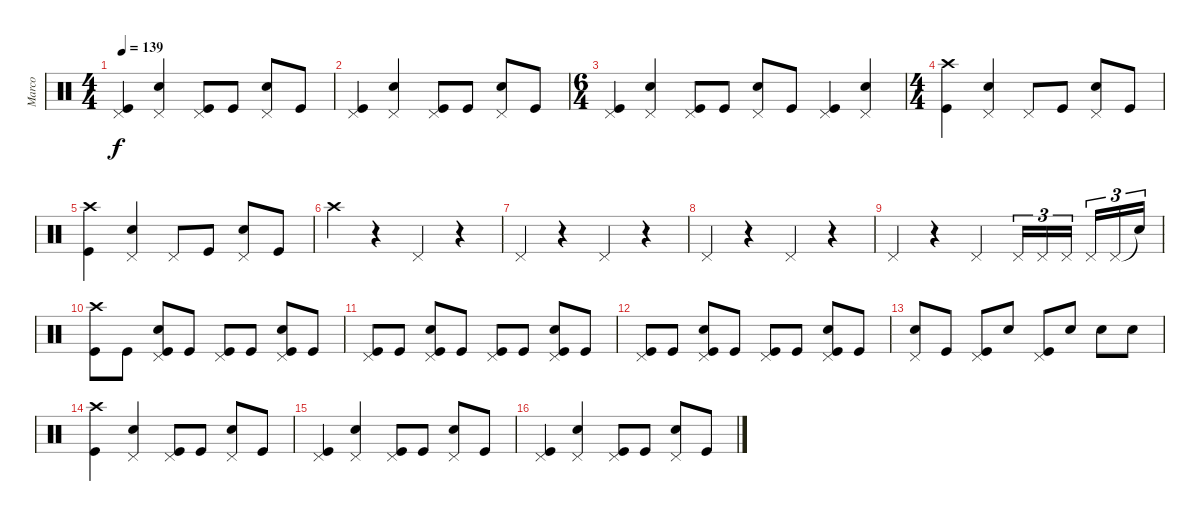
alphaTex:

\track ("Marco" "Marco") {instrument percussion}
\staff {score}
\articulation defaults
\ts (4 4)
\tempo 139
\clef neutral
\ks c
("Pedal Hi-Hat (hit)" "Kick (hit)").4{dy f} ("Pedal Hi-Hat (hit)" "Snare (hit) 2").4 ("Pedal Hi-Hat (hit)" "Kick (hit)").8 "Kick (hit)".8 ("Pedal Hi-Hat (hit)" "Snare (hit) 2").8 "Kick (hit)".8 |
("Pedal Hi-Hat (hit)" "Kick (hit)").4 ("Pedal Hi-Hat (hit)" "Snare (hit) 2").4 ("Pedal Hi-Hat (hit)" "Kick (hit)").8 "Kick (hit)".8 ("Pedal Hi-Hat (hit)" "Snare (hit) 2").8 "Kick (hit)".8 |
\ts (6 4)
("Pedal Hi-Hat (hit)" "Kick (hit)").4 ("Pedal Hi-Hat (hit)" "Snare (hit) 2").4 ("Pedal Hi-Hat (hit)" "Kick (hit)").8 "Kick (hit)".8 ("Pedal Hi-Hat (hit)" "Snare (hit) 2").8 "Kick (hit)".8 ("Pedal Hi-Hat (hit)" "Kick (hit)").4 ("Pedal Hi-Hat (hit)" "Snare (hit) 2").4 |
\ts (4 4)
("Crash high (hit)" "Kick (hit)").4 ("Pedal Hi-Hat (hit)" "Snare (hit) 2").4 "Pedal Hi-Hat (hit)".8 "Kick (hit)".8 ("Pedal Hi-Hat (hit)" "Snare (hit) 2").8 "Kick (hit)".8 |
("Crash high (hit)" "Kick (hit)").4 ("Pedal Hi-Hat (hit)" "Snare (hit) 2").4 "Pedal Hi-Hat (hit)".8 "Kick (hit)".8 ("Pedal Hi-Hat (hit)" "Snare (hit) 2").8 "Kick (hit)".8 |
"Crash high (hit)".4 r.4 "Pedal Hi-Hat (hit)".4 r.4 |
"Pedal Hi-Hat (hit)".4 r.4 "Pedal Hi-Hat (hit)".4 r.4 |
"Pedal Hi-Hat (hit)".4 r.4 "Pedal Hi-Hat (hit)".4 r.4 |
"Pedal Hi-Hat (hit)".4 r.4 "Pedal Hi-Hat (hit)".4 "Pedal Hi-Hat (hit)".16{tu (3 2)} "Pedal Hi-Hat (hit)".16{tu (3 2)} "Pedal Hi-Hat (hit)".16{tu (3 2)} "Pedal Hi-Hat (hit)".16{tu (3 2)} "Pedal Hi-Hat (hit)".16{tu (3 2)} "Snare (hit)"{t}.16{tu (3 2)} |
("Crash high (hit)" "Kick (hit)").8 "Kick (hit)".8 ("Pedal Hi-Hat (hit)" "Snare (hit) 2" "Kick (hit)").8 "Kick (hit)".8 ("Pedal Hi-Hat (hit)" "Kick (hit)").8 "Kick (hit)".8 ("Pedal Hi-Hat (hit)" "Snare (hit) 2" "Kick (hit)").8 "Kick (hit)".8 |
("Pedal Hi-Hat (hit)" "Kick (hit)").8 "Kick (hit)".8 ("Pedal Hi-Hat (hit)" "Snare (hit) 2" "Kick (hit)").8 "Kick (hit)".8 ("Pedal Hi-Hat (hit)" "Kick (hit)").8 "Kick (hit)".8 ("Pedal Hi-Hat (hit)" "Snare (hit) 2" "Kick (hit)").8 "Kick (hit)".8 |
("Pedal Hi-Hat (hit)" "Kick (hit)").8 "Kick (hit)".8 ("Pedal Hi-Hat (hit)" "Snare (hit) 2" "Kick (hit)").8 "Kick (hit)".8 ("Pedal Hi-Hat (hit)" "Kick (hit)").8 "Kick (hit)".8 ("Pedal Hi-Hat (hit)" "Snare (hit) 2" "Kick (hit)").8 "Kick (hit)".8 |
("Pedal Hi-Hat (hit)" "Snare (hit) 2").8 "Kick (hit)".8 ("Pedal Hi-Hat (hit)" "Kick (hit)").8 "Snare (hit) 2".8 ("Pedal Hi-Hat (hit)" "Kick (hit)").8 "Snare (hit) 2".8 "Snare (hit) 2".8 "Snare (hit) 2".8 |
("Crash high (hit)" "Kick (hit)").4 ("Pedal Hi-Hat (hit)" "Snare (hit) 2").4 ("Pedal Hi-Hat (hit)" "Kick (hit)").8 "Kick (hit)".8 ("Pedal Hi-Hat (hit)" "Snare (hit) 2").8 "Kick (hit)".8 |
("Pedal Hi-Hat (hit)" "Kick (hit)").4 ("Pedal Hi-Hat (hit)" "Snare (hit) 2").4 ("Pedal Hi-Hat (hit)" "Kick (hit)").8 "Kick (hit)".8 ("Pedal Hi-Hat (hit)" "Snare (hit) 2").8 "Kick (hit)".8 |
("Pedal Hi-Hat (hit)" "Kick (hit)").4 ("Pedal Hi-Hat (hit)" "Snare (hit) 2").4 ("Pedal Hi-Hat (hit)" "Kick (hit)").8 "Kick (hit)".8 ("Pedal Hi-Hat (hit)" "Snare (hit) 2").8 "Kick (hit)".8
